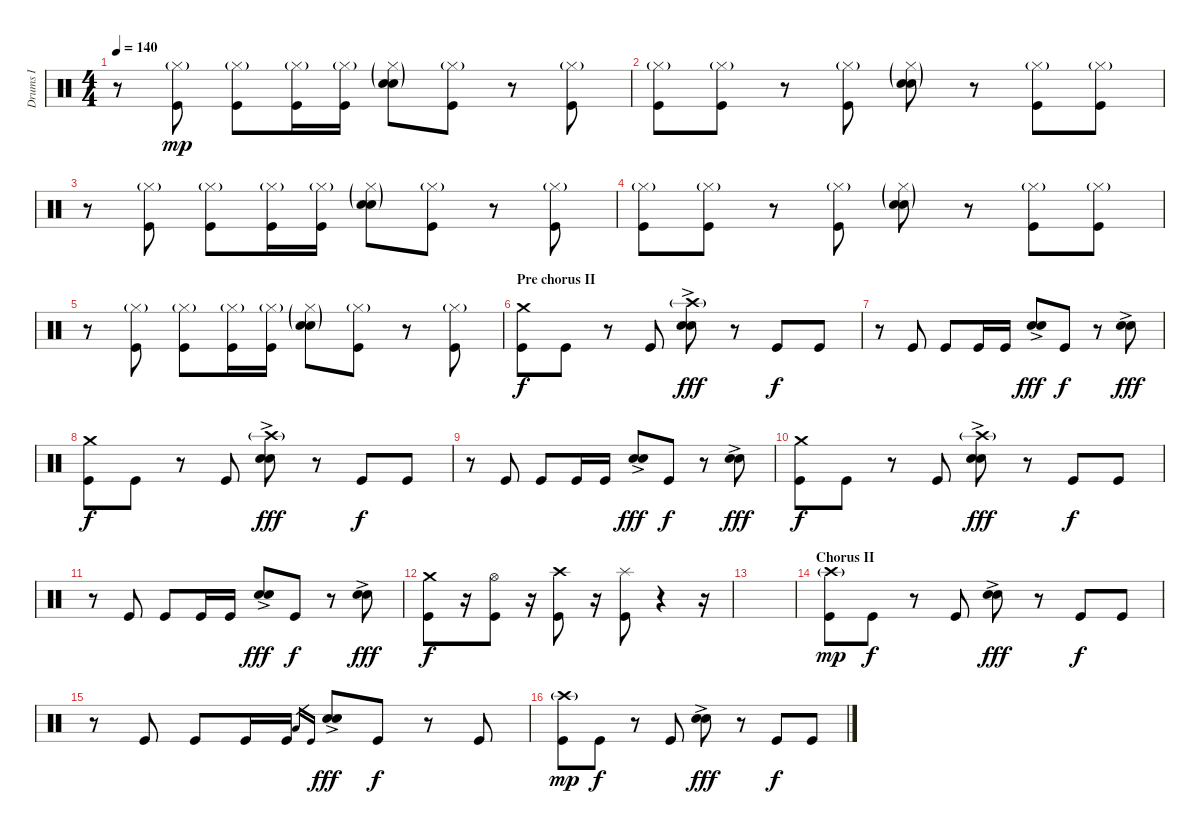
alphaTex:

\track ("Drums I" "Drums I") {instrument percussion}
\staff {score}
\articulation defaults
\ts (4 4)
\tempo 140
\clef neutral
\ks c
r.8{dy mp} ("Hi-Hat (closed)"{g} "Kick (hit)").8 ("Hi-Hat (closed)"{g} "Kick (hit)").8 ("Hi-Hat (closed)"{g} "Kick (hit)").16 ("Hi-Hat (closed)"{g} "Kick (hit)").16 ("Hi-Hat (closed)"{g} "Snare (hit) 2"{g} "Hand Clap (hit)").8 ("Hi-Hat (closed)"{g} "Kick (hit)").8 r.8 ("Hi-Hat (closed)"{g} "Kick (hit)").8 |
("Hi-Hat (closed)"{g} "Kick (hit)").8 ("Hi-Hat (closed)"{g} "Kick (hit)").8 r.8 ("Hi-Hat (closed)"{g} "Kick (hit)").8 ("Hi-Hat (closed)"{g} "Snare (hit) 2"{g} "Hand Clap (hit)").8 r.8 ("Hi-Hat (closed)"{g} "Kick (hit)").8 ("Hi-Hat (closed)"{g} "Kick (hit)").8 |
r.8 ("Hi-Hat (closed)"{g} "Kick (hit)").8 ("Hi-Hat (closed)"{g} "Kick (hit)").8 ("Hi-Hat (closed)"{g} "Kick (hit)").16 ("Hi-Hat (closed)"{g} "Kick (hit)").16 ("Hi-Hat (closed)"{g} "Snare (hit) 2"{g} "Hand Clap (hit)").8 ("Hi-Hat (closed)"{g} "Kick (hit)").8 r.8 ("Hi-Hat (closed)"{g} "Kick (hit)").8 |
("Hi-Hat (closed)"{g} "Kick (hit)").8 ("Hi-Hat (closed)"{g} "Kick (hit)").8 r.8 ("Hi-Hat (closed)"{g} "Kick (hit)").8 ("Hi-Hat (closed)"{g} "Snare (hit) 2"{g} "Hand Clap (hit)").8 r.8 ("Hi-Hat (closed)"{g} "Kick (hit)").8 ("Hi-Hat (closed)"{g} "Kick (hit)").8 |
r.8 ("Hi-Hat (closed)"{g} "Kick (hit)").8 ("Hi-Hat (closed)"{g} "Kick (hit)").8 ("Hi-Hat (closed)"{g} "Kick (hit)").16 ("Hi-Hat (closed)"{g} "Kick (hit)").16 ("Hi-Hat (closed)"{g} "Snare (hit) 2"{g} "Hand Clap (hit)").8 ("Hi-Hat (closed)"{g} "Kick (hit)").8 r.8 ("Hi-Hat (closed)"{g} "Kick (hit)").8 |
\section ("" "Pre chorus II")
("Crash medium (hit)" "Kick (hit)").8{dy f} "Kick (hit)".8 r.8 "Kick (hit)".8 ("Crash high (hit)"{g} "Electric Snare (hit)" "Snare (hit) 2"{ac}).8{dy fff} r.8 "Kick (hit)".8{dy f} "Kick (hit)".8 |
r.8 "Kick (hit)".8 "Kick (hit)".8 "Kick (hit)".16 "Kick (hit)".16 ("Electric Snare (hit)" "Snare (hit) 2"{ac}).8{dy fff} "Kick (hit)".8{dy f} r.8 ("Electric Snare (hit)" "Snare (hit) 2"{ac}).8{dy fff} |
("Crash medium (hit)" "Kick (hit)").8{dy f} "Kick (hit)".8 r.8 "Kick (hit)".8 ("Crash high (hit)"{g} "Electric Snare (hit)" "Snare (hit) 2"{ac}).8{dy fff} r.8 "Kick (hit)".8{dy f} "Kick (hit)".8 |
r.8 "Kick (hit)".8 "Kick (hit)".8 "Kick (hit)".16 "Kick (hit)".16 ("Electric Snare (hit)" "Snare (hit) 2"{ac}).8{dy fff} "Kick (hit)".8{dy f} r.8 ("Electric Snare (hit)" "Snare (hit) 2"{ac}).8{dy fff} |
("Crash medium (hit)" "Kick (hit)").8{dy f} "Kick (hit)".8 r.8 "Kick (hit)".8 ("Crash high (hit)"{g} "Electric Snare (hit)" "Snare (hit) 2"{ac}).8{dy fff} r.8 "Kick (hit)".8{dy f} "Kick (hit)".8 |
r.8 "Kick (hit)".8 "Kick (hit)".8 "Kick (hit)".16 "Kick (hit)".16 ("Electric Snare (hit)" "Snare (hit) 2"{ac}).8{dy fff} "Kick (hit)".8{dy f} r.8 ("Electric Snare (hit)" "Snare (hit) 2"{ac}).8{dy fff} |
("Crash medium (hit)" "Kick (hit)").8{dy f} r.16 ("Hi-Hat (open)" "Kick (hit)").8 r.16 ("Crash high (hit)" "Kick (hit)").8 r.16 ("Splash (hit)" "Kick (hit)").8 r.4 r.16 |
|
\section ("" "Chorus II")
("Crash high (hit)"{g} "Kick (hit)").8{dy mp} "Kick (hit)".8{dy f} r.8 "Kick (hit)".8 ("Electric Snare (hit)"{ac} "Snare (hit) 2").8{dy fff} r.8 "Kick (hit)".8{dy f} "Kick (hit)".8 |
r.8 "Kick (hit)".8 "Kick (hit)".8 "Kick (hit)".16 "Kick (hit)".16 "Low Floor Tom (hit)".16{gr} "Kick (hit)".16{gr} ("Electric Snare (hit)"{ac} "Snare (hit) 2").8{dy fff} "Kick (hit)".8{dy f} r.8 "Kick (hit)".8 |
("Crash high (hit)"{g} "Kick (hit)").8{dy mp} "Kick (hit)".8{dy f} r.8 "Kick (hit)".8 ("Electric Snare (hit)"{ac} "Snare (hit) 2").8{dy fff} r.8 "Kick (hit)".8{dy f} "Kick (hit)".8
